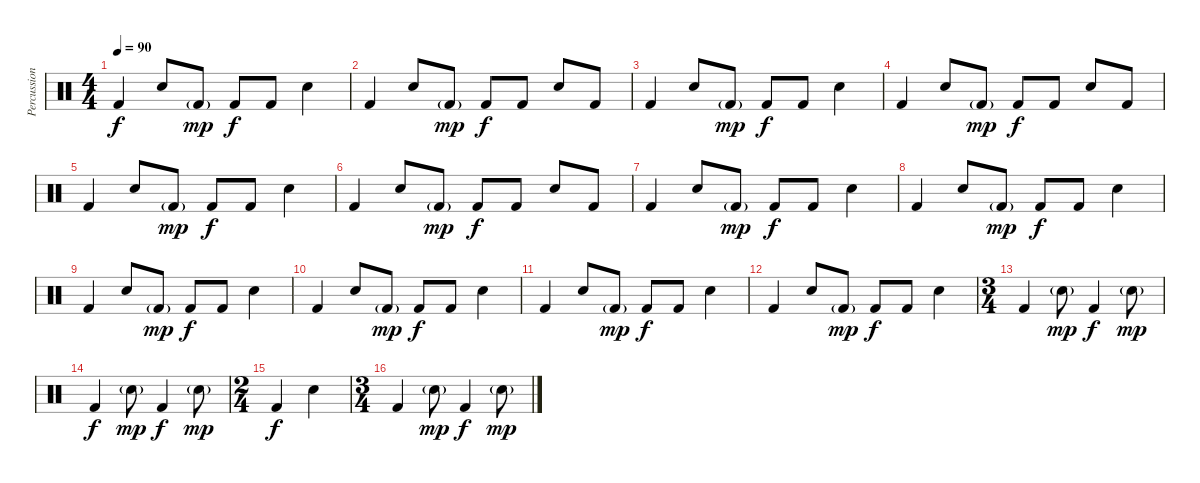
\track ("Percussion" "Percussion") {instrument percussion}
\staff {score}
\articulation defaults
\ts (4 4)
\tempo 90
\clef neutral
\ks c "Kick (hit) 2".4{dy f} "Snare (hit) 2".8 "Kick (hit) 2"{g}.8{dy mp} "Kick (hit) 2".8{dy f} "Kick (hit) 2".8 "Snare (hit) 2".4
|
"Kick (hit) 2".4 "Snare (hit) 2".8 "Kick (hit) 2"{g}.8{dy mp} "Kick (hit) 2".8{dy f} "Kick (hit) 2".8 "Snare (hit) 2".8 "Kick (hit) 2".8 |
"Kick (hit) 2".4 "Snare (hit) 2".8 "Kick (hit) 2"{g}.8{dy mp} "Kick (hit) 2".8{dy f} "Kick (hit) 2".8 "Snare (hit) 2".4 |
"Kick (hit) 2".4 "Snare (hit) 2".8 "Kick (hit) 2"{g}.8{dy mp} "Kick (hit) 2".8{dy f} "Kick (hit) 2".8 "Snare (hit) 2".8 "Kick (hit) 2".8 |
"Kick (hit) 2".4 "Snare (hit) 2".8 "Kick (hit) 2"{g}.8{dy mp} "Kick (hit) 2".8{dy f} "Kick (hit) 2".8 "Snare (hit) 2".4 |
"Kick (hit) 2".4 "Snare (hit) 2".8 "Kick (hit) 2"{g}.8{dy mp} "Kick (hit) 2".8{dy f} "Kick (hit) 2".8 "Snare (hit) 2".8 "Kick (hit) 2".8 |
"Kick (hit) 2".4 "Snare (hit) 2".8 "Kick (hit) 2"{g}.8{dy mp} "Kick (hit) 2".8{dy f} "Kick (hit) 2".8 "Snare (hit) 2".4 |
"Kick (hit) 2".4 "Snare (hit) 2".8 "Kick (hit) 2"{g}.8{dy mp} "Kick (hit) 2".8{dy f} "Kick (hit) 2".8 "Snare (hit) 2".4 |
"Kick (hit) 2".4 "Snare (hit) 2".8 "Kick (hit) 2"{g}.8{dy mp} "Kick (hit) 2".8{dy f} "Kick (hit) 2".8 "Snare (hit) 2".4 |
"Kick (hit) 2".4 "Snare (hit) 2".8 "Kick (hit) 2"{g}.8{dy mp} "Kick (hit) 2".8{dy f} "Kick (hit) 2".8 "Snare (hit) 2".4 |
"Kick (hit) 2".4 "Snare (hit) 2".8 "Kick (hit) 2"{g}.8{dy mp} "Kick (hit) 2".8{dy f} "Kick (hit) 2".8 "Snare (hit) 2".4 |
"Kick (hit) 2".4 "Snare (hit) 2".8 "Kick (hit) 2"{g}.8{dy mp} "Kick (hit) 2".8{dy f} "Kick (hit) 2".8 "Snare (hit) 2".4 |
\ts (3 4)
"Kick (hit) 2".4 "Snare (hit) 2"{g}.8{dy mp} "Kick (hit) 2".4{dy f} "Snare (hit) 2"{g}.8{dy mp} |
"Kick (hit) 2".4{dy f} "Snare (hit) 2"{g}.8{dy mp} "Kick (hit) 2".4{dy f} "Snare (hit) 2"{g}.8{dy mp} |
\ts (2 4)
"Kick (hit) 2".4{dy f} "Snare (hit) 2".4 |
\ts (3 4)
"Kick (hit) 2".4 "Snare (hit) 2"{g}.8{dy mp} "Kick (hit) 2".4{dy f} "Snare (hit) 2"{g}.8{dy mp}
